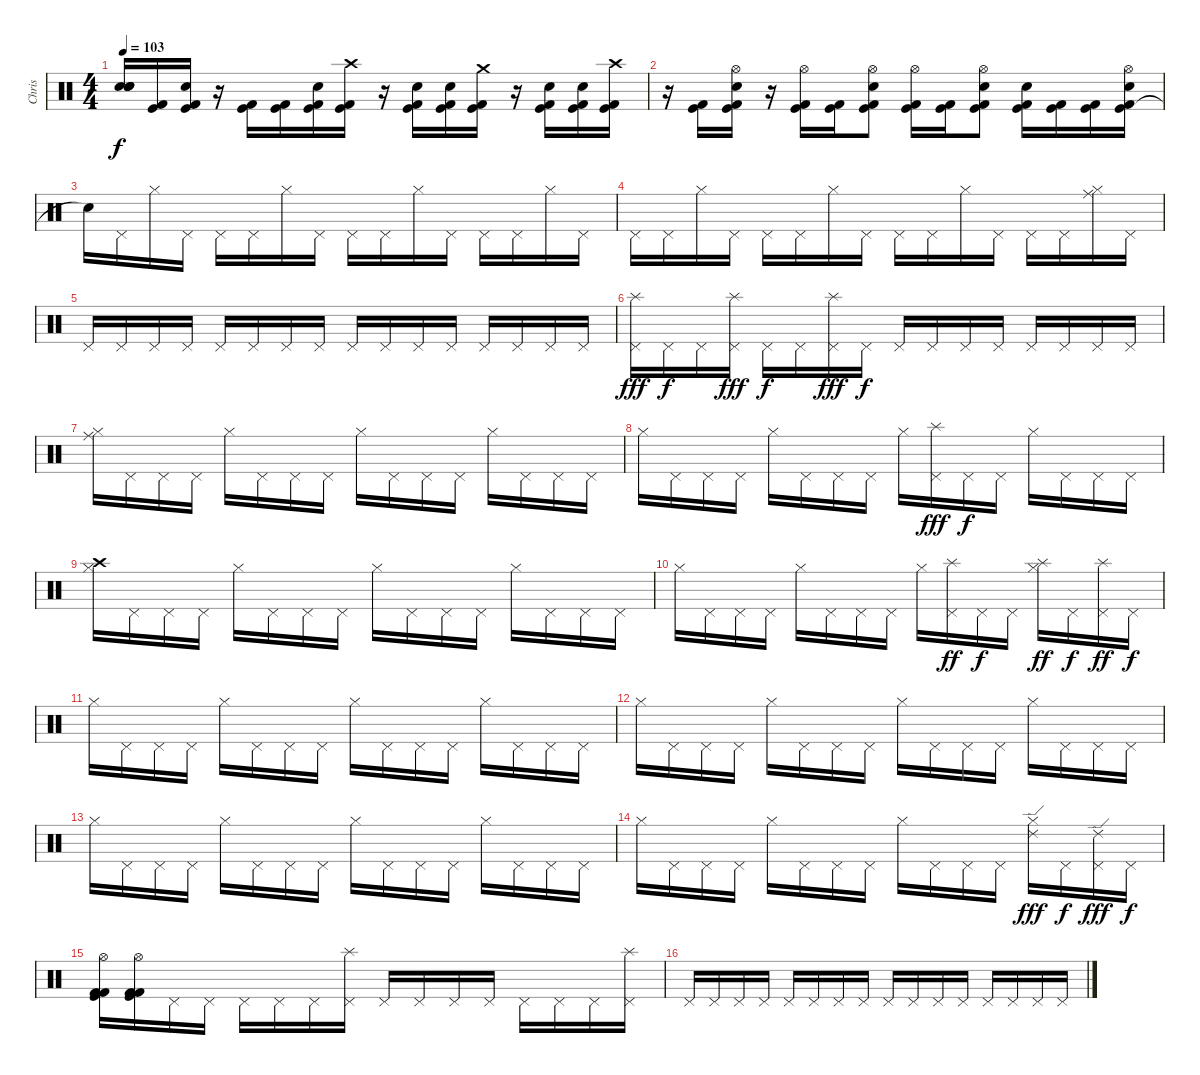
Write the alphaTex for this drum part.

\track ("Chris" "Chris") {instrument percussion}
\staff {score}
\articulation defaults
\ts (4 4)
\tempo 103
\clef neutral
\ks c
("Snare (hit)"{t} "Snare (hit)"{t} "Snare (hit)"{t} "Snare (hit)"{t}).16{dy f} ("Kick (hit)" "Kick (hit) 2").16 ("Kick (hit)" "Kick (hit) 2" "Electric Snare (hit)").16 r.16 ("Kick (hit)" "Kick (hit) 2").16 ("Kick (hit)" "Kick (hit) 2").16 ("Kick (hit)" "Kick (hit) 2" "Electric Snare (hit)").16 ("Kick (hit)" "Kick (hit) 2" "Crash high (hit)").16 r.16 ("Kick (hit)" "Kick (hit) 2" "Electric Snare (hit)").16 ("Kick (hit)" "Kick (hit) 2" "Electric Snare (hit)").16 ("Kick (hit)" "Kick (hit) 2" "Crash medium (hit)").16 r.16 ("Kick (hit)" "Kick (hit) 2" "Electric Snare (hit)").16 ("Kick (hit)" "Kick (hit) 2" "Electric Snare (hit)").16 ("Kick (hit)" "Kick (hit) 2" "Crash high (hit)").16 |
r.16 ("Kick (hit)" "Kick (hit) 2").16 ("Kick (hit)" "Kick (hit) 2" "Electric Snare (hit)" "Hi-Hat (open)").16 r.16 ("Kick (hit)" "Kick (hit) 2" "Hi-Hat (open)").16 ("Kick (hit)" "Kick (hit) 2").16 ("Kick (hit)" "Kick (hit) 2" "Electric Snare (hit)" "Hi-Hat (open)").8 ("Kick (hit)" "Kick (hit) 2" "Hi-Hat (open)").16 ("Kick (hit)" "Kick (hit) 2").16 ("Kick (hit)" "Kick (hit) 2" "Electric Snare (hit)" "Hi-Hat (open)").8 ("Kick (hit)" "Kick (hit) 2" "Electric Snare (hit)").16 ("Kick (hit)" "Kick (hit) 2").16 ("Kick (hit)" "Kick (hit) 2").16 ("Kick (hit)" "Kick (hit) 2" "Electric Snare (hit)" "Hi-Hat (open)").16 |
"Snare (hit)"{t}.16 "Pedal Hi-Hat (hit)".16 "Hi-Hat (closed)".16 "Pedal Hi-Hat (hit)".16 "Pedal Hi-Hat (hit)".16 "Pedal Hi-Hat (hit)".16 "Hi-Hat (closed)".16 "Pedal Hi-Hat (hit)".16 "Pedal Hi-Hat (hit)".16 "Pedal Hi-Hat (hit)".16 "Hi-Hat (closed)".16 "Pedal Hi-Hat (hit)".16 "Pedal Hi-Hat (hit)".16 "Pedal Hi-Hat (hit)".16 "Hi-Hat (closed)".16 "Pedal Hi-Hat (hit)".16 |
"Pedal Hi-Hat (hit)".16 "Pedal Hi-Hat (hit)".16 "Hi-Hat (closed)".16 "Pedal Hi-Hat (hit)".16 "Pedal Hi-Hat (hit)".16 "Pedal Hi-Hat (hit)".16 "Hi-Hat (closed)".16 "Pedal Hi-Hat (hit)".16 "Pedal Hi-Hat (hit)".16 "Pedal Hi-Hat (hit)".16 "Hi-Hat (closed)".16 "Pedal Hi-Hat (hit)".16 "Pedal Hi-Hat (hit)".16 "Pedal Hi-Hat (hit)".16 ("Hi-Hat (closed)" "Ride (middle)").16 "Pedal Hi-Hat (hit)".16 |
"Pedal Hi-Hat (hit)".16 "Pedal Hi-Hat (hit)".16 "Pedal Hi-Hat (hit)".16 "Pedal Hi-Hat (hit)".16 "Pedal Hi-Hat (hit)".16 "Pedal Hi-Hat (hit)".16 "Pedal Hi-Hat (hit)".16 "Pedal Hi-Hat (hit)".16 "Pedal Hi-Hat (hit)".16 "Pedal Hi-Hat (hit)".16 "Pedal Hi-Hat (hit)".16 "Pedal Hi-Hat (hit)".16 "Pedal Hi-Hat (hit)".16 "Pedal Hi-Hat (hit)".16 "Pedal Hi-Hat (hit)".16 "Pedal Hi-Hat (hit)".16 |
("Pedal Hi-Hat (hit)" "Splash (hit)").16{dy fff} "Pedal Hi-Hat (hit)".16{dy f} "Pedal Hi-Hat (hit)".16 ("Pedal Hi-Hat (hit)" "Splash (hit)").16{dy fff} "Pedal Hi-Hat (hit)".16{dy f} "Pedal Hi-Hat (hit)".16 ("Pedal Hi-Hat (hit)" "Splash (hit)").16{dy fff} "Pedal Hi-Hat (hit)".16{dy f} "Pedal Hi-Hat (hit)".16 "Pedal Hi-Hat (hit)".16 "Pedal Hi-Hat (hit)".16 "Pedal Hi-Hat (hit)".16 "Pedal Hi-Hat (hit)".16 "Pedal Hi-Hat (hit)".16 "Pedal Hi-Hat (hit)".16 "Pedal Hi-Hat (hit)".16 |
("Hi-Hat (closed)" "Ride (middle)").16 "Pedal Hi-Hat (hit)".16 "Pedal Hi-Hat (hit)".16 "Pedal Hi-Hat (hit)".16 "Hi-Hat (closed)".16 "Pedal Hi-Hat (hit)".16 "Pedal Hi-Hat (hit)".16 "Pedal Hi-Hat (hit)".16 "Hi-Hat (closed)".16 "Pedal Hi-Hat (hit)".16 "Pedal Hi-Hat (hit)".16 "Pedal Hi-Hat (hit)".16 "Hi-Hat (closed)".16 "Pedal Hi-Hat (hit)".16 "Pedal Hi-Hat (hit)".16 "Pedal Hi-Hat (hit)".16 |
"Hi-Hat (closed)".16 "Pedal Hi-Hat (hit)".16 "Pedal Hi-Hat (hit)".16 "Pedal Hi-Hat (hit)".16 "Hi-Hat (closed)".16 "Pedal Hi-Hat (hit)".16 "Pedal Hi-Hat (hit)".16 "Pedal Hi-Hat (hit)".16 "Hi-Hat (closed)".16 ("Pedal Hi-Hat (hit)" "Splash (hit)").16{dy fff} "Pedal Hi-Hat (hit)".16{dy f} "Pedal Hi-Hat (hit)".16 "Hi-Hat (closed)".16 "Pedal Hi-Hat (hit)".16 "Pedal Hi-Hat (hit)".16 "Pedal Hi-Hat (hit)".16 |
("Hi-Hat (closed)" "Crash high (hit)").16 "Pedal Hi-Hat (hit)".16 "Pedal Hi-Hat (hit)".16 "Pedal Hi-Hat (hit)".16 "Hi-Hat (closed)".16 "Pedal Hi-Hat (hit)".16 "Pedal Hi-Hat (hit)".16 "Pedal Hi-Hat (hit)".16 "Hi-Hat (closed)".16 "Pedal Hi-Hat (hit)".16 "Pedal Hi-Hat (hit)".16 "Pedal Hi-Hat (hit)".16 "Hi-Hat (closed)".16 "Pedal Hi-Hat (hit)".16 "Pedal Hi-Hat (hit)".16 "Pedal Hi-Hat (hit)".16 |
"Hi-Hat (closed)".16 "Pedal Hi-Hat (hit)".16 "Pedal Hi-Hat (hit)".16 "Pedal Hi-Hat (hit)".16 "Hi-Hat (closed)".16 "Pedal Hi-Hat (hit)".16 "Pedal Hi-Hat (hit)".16 "Pedal Hi-Hat (hit)".16 "Hi-Hat (closed)".16 ("Pedal Hi-Hat (hit)" "Splash (hit)").16{dy ff} "Pedal Hi-Hat (hit)".16{dy f} "Pedal Hi-Hat (hit)".16 ("Hi-Hat (closed)" "Splash (hit)").16{dy ff} "Pedal Hi-Hat (hit)".16{dy f} ("Pedal Hi-Hat (hit)" "Splash (hit)").16{dy ff} "Pedal Hi-Hat (hit)".16{dy f} |
"Hi-Hat (closed)".16 "Pedal Hi-Hat (hit)".16 "Pedal Hi-Hat (hit)".16 "Pedal Hi-Hat (hit)".16 "Hi-Hat (closed)".16 "Pedal Hi-Hat (hit)".16 "Pedal Hi-Hat (hit)".16 "Pedal Hi-Hat (hit)".16 "Hi-Hat (closed)".16 "Pedal Hi-Hat (hit)".16 "Pedal Hi-Hat (hit)".16 "Pedal Hi-Hat (hit)".16 "Hi-Hat (closed)".16 "Pedal Hi-Hat (hit)".16 "Pedal Hi-Hat (hit)".16 "Pedal Hi-Hat (hit)".16 |
"Hi-Hat (closed)".16 "Pedal Hi-Hat (hit)".16 "Pedal Hi-Hat (hit)".16 "Pedal Hi-Hat (hit)".16 "Hi-Hat (closed)".16 "Pedal Hi-Hat (hit)".16 "Pedal Hi-Hat (hit)".16 "Pedal Hi-Hat (hit)".16 "Hi-Hat (closed)".16 "Pedal Hi-Hat (hit)".16 "Pedal Hi-Hat (hit)".16 "Pedal Hi-Hat (hit)".16 "Hi-Hat (closed)".16 "Pedal Hi-Hat (hit)".16 "Pedal Hi-Hat (hit)".16 "Pedal Hi-Hat (hit)".16 |
"Hi-Hat (closed)".16 "Pedal Hi-Hat (hit)".16 "Pedal Hi-Hat (hit)".16 "Pedal Hi-Hat (hit)".16 "Hi-Hat (closed)".16 "Pedal Hi-Hat (hit)".16 "Pedal Hi-Hat (hit)".16 "Pedal Hi-Hat (hit)".16 "Hi-Hat (closed)".16 "Pedal Hi-Hat (hit)".16 "Pedal Hi-Hat (hit)".16 "Pedal Hi-Hat (hit)".16 "Hi-Hat (closed)".16 "Pedal Hi-Hat (hit)".16 "Pedal Hi-Hat (hit)".16 "Pedal Hi-Hat (hit)".16 |
"Hi-Hat (closed)".16 "Pedal Hi-Hat (hit)".16 "Pedal Hi-Hat (hit)".16 "Pedal Hi-Hat (hit)".16 "Hi-Hat (closed)".16 "Pedal Hi-Hat (hit)".16 "Pedal Hi-Hat (hit)".16 "Pedal Hi-Hat (hit)".16 "Hi-Hat (closed)".16 "Pedal Hi-Hat (hit)".16 "Pedal Hi-Hat (hit)".16 "Pedal Hi-Hat (hit)".16 ("Hi-Hat (closed)" "Ride (edge) 2").16{dy fff} "Pedal Hi-Hat (hit)".16{dy f} ("Pedal Hi-Hat (hit)" "Ride (edge) 2").16{dy fff} "Pedal Hi-Hat (hit)".16{dy f} |
("Kick (hit)" "Kick (hit) 2" "Kick (hit) 2" "Hi-Hat (open)").16 ("Kick (hit)" "Kick (hit) 2" "Kick (hit) 2" "Hi-Hat (open)").16 "Pedal Hi-Hat (hit)".16 "Pedal Hi-Hat (hit)".16 "Pedal Hi-Hat (hit)".16 "Pedal Hi-Hat (hit)".16 "Pedal Hi-Hat (hit)".16 ("Pedal Hi-Hat (hit)" "Splash (hit)").16 "Pedal Hi-Hat (hit)".16 "Pedal Hi-Hat (hit)".16 "Pedal Hi-Hat (hit)".16 "Pedal Hi-Hat (hit)".16 "Pedal Hi-Hat (hit)".16 "Pedal Hi-Hat (hit)".16 "Pedal Hi-Hat (hit)".16 ("Pedal Hi-Hat (hit)" "Splash (hit)").16 |
"Pedal Hi-Hat (hit)".16 "Pedal Hi-Hat (hit)".16 "Pedal Hi-Hat (hit)".16 "Pedal Hi-Hat (hit)".16 "Pedal Hi-Hat (hit)".16 "Pedal Hi-Hat (hit)".16 "Pedal Hi-Hat (hit)".16 "Pedal Hi-Hat (hit)".16 "Pedal Hi-Hat (hit)".16 "Pedal Hi-Hat (hit)".16 "Pedal Hi-Hat (hit)".16 "Pedal Hi-Hat (hit)".16 "Pedal Hi-Hat (hit)".16 "Pedal Hi-Hat (hit)".16 "Pedal Hi-Hat (hit)".16 "Pedal Hi-Hat (hit)".16
